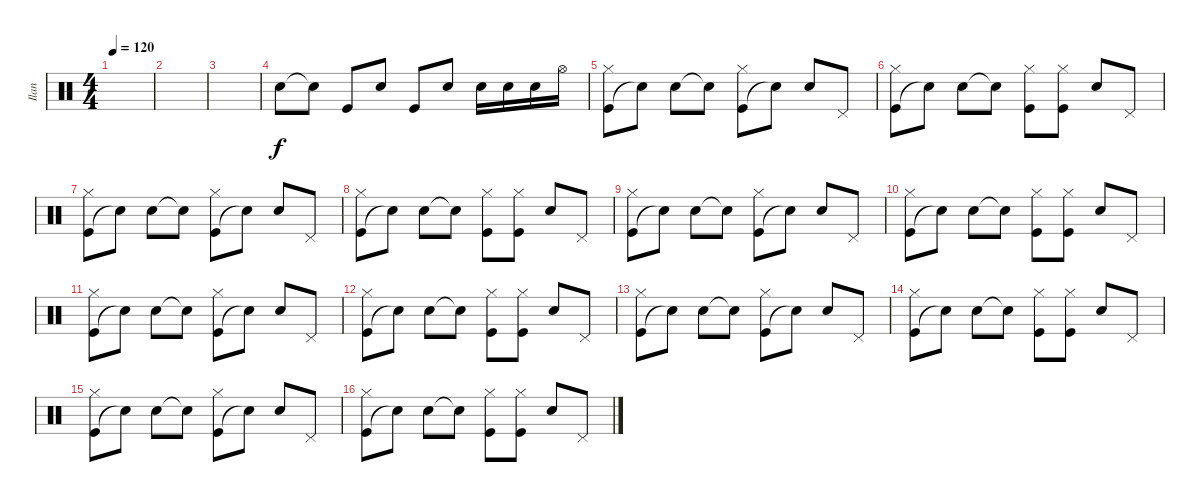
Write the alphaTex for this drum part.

\track ("Ilan" "Ilan") {instrument percussion}
\staff {score}
\articulation defaults
\ts (4 4)
\tempo 120
\clef neutral
\ks c
|
|
|
"Electric Snare (hit)".8 "Snare (hit)"{t}.8 "Kick (hit)".8 "Electric Snare (hit)".8 "Kick (hit)".8 "Electric Snare (hit)".8 "Electric Snare (hit)".16 "Electric Snare (hit)".16 "Electric Snare (hit)".16 "Hi-Hat (open)".16 |
("Kick (hit)" "Hi-Hat (closed)").8 "Snare (hit)"{t}.8 "Electric Snare (hit)".8 "Snare (hit)"{t}.8 ("Kick (hit)" "Hi-Hat (closed)").8 "Snare (hit)"{t}.8 "Electric Snare (hit)".8 "Pedal Hi-Hat (hit)".8 |
("Kick (hit)" "Hi-Hat (closed)").8 "Snare (hit)"{t}.8 "Electric Snare (hit)".8 "Snare (hit)"{t}.8 ("Kick (hit)" "Hi-Hat (closed)").8 ("Kick (hit)" "Hi-Hat (closed)").8 "Electric Snare (hit)".8 "Pedal Hi-Hat (hit)".8 |
("Kick (hit)" "Hi-Hat (closed)").8 "Snare (hit)"{t}.8 "Electric Snare (hit)".8 "Snare (hit)"{t}.8 ("Kick (hit)" "Hi-Hat (closed)").8 "Snare (hit)"{t}.8 "Electric Snare (hit)".8 "Pedal Hi-Hat (hit)".8 |
("Kick (hit)" "Hi-Hat (closed)").8 "Snare (hit)"{t}.8 "Electric Snare (hit)".8 "Snare (hit)"{t}.8 ("Kick (hit)" "Hi-Hat (closed)").8 ("Kick (hit)" "Hi-Hat (closed)").8 "Electric Snare (hit)".8 "Pedal Hi-Hat (hit)".8 |
("Kick (hit)" "Hi-Hat (closed)").8 "Snare (hit)"{t}.8 "Electric Snare (hit)".8 "Snare (hit)"{t}.8 ("Kick (hit)" "Hi-Hat (closed)").8 "Snare (hit)"{t}.8 "Electric Snare (hit)".8 "Pedal Hi-Hat (hit)".8 |
("Kick (hit)" "Hi-Hat (closed)").8 "Snare (hit)"{t}.8 "Electric Snare (hit)".8 "Snare (hit)"{t}.8 ("Kick (hit)" "Hi-Hat (closed)").8 ("Kick (hit)" "Hi-Hat (closed)").8 "Electric Snare (hit)".8 "Pedal Hi-Hat (hit)".8 |
("Kick (hit)" "Hi-Hat (closed)").8 "Snare (hit)"{t}.8 "Electric Snare (hit)".8 "Snare (hit)"{t}.8 ("Kick (hit)" "Hi-Hat (closed)").8 "Snare (hit)"{t}.8 "Electric Snare (hit)".8 "Pedal Hi-Hat (hit)".8 |
("Kick (hit)" "Hi-Hat (closed)").8 "Snare (hit)"{t}.8 "Electric Snare (hit)".8 "Snare (hit)"{t}.8 ("Kick (hit)" "Hi-Hat (closed)").8 ("Kick (hit)" "Hi-Hat (closed)").8 "Electric Snare (hit)".8 "Pedal Hi-Hat (hit)".8 |
("Kick (hit)" "Hi-Hat (closed)").8 "Snare (hit)"{t}.8 "Electric Snare (hit)".8 "Snare (hit)"{t}.8 ("Kick (hit)" "Hi-Hat (closed)").8 "Snare (hit)"{t}.8 "Electric Snare (hit)".8 "Pedal Hi-Hat (hit)".8 |
("Kick (hit)" "Hi-Hat (closed)").8 "Snare (hit)"{t}.8 "Electric Snare (hit)".8 "Snare (hit)"{t}.8 ("Kick (hit)" "Hi-Hat (closed)").8 ("Kick (hit)" "Hi-Hat (closed)").8 "Electric Snare (hit)".8 "Pedal Hi-Hat (hit)".8 |
("Kick (hit)" "Hi-Hat (closed)").8 "Snare (hit)"{t}.8 "Electric Snare (hit)".8 "Snare (hit)"{t}.8 ("Kick (hit)" "Hi-Hat (closed)").8 "Snare (hit)"{t}.8 "Electric Snare (hit)".8 "Pedal Hi-Hat (hit)".8 |
("Kick (hit)" "Hi-Hat (closed)").8 "Snare (hit)"{t}.8 "Electric Snare (hit)".8 "Snare (hit)"{t}.8 ("Kick (hit)" "Hi-Hat (closed)").8 ("Kick (hit)" "Hi-Hat (closed)").8 "Electric Snare (hit)".8 "Pedal Hi-Hat (hit)".8
